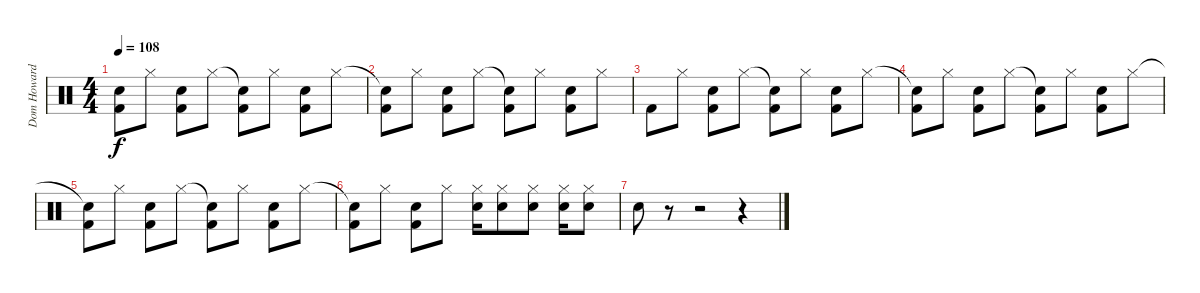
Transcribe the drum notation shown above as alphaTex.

\track ("Dom Howard" "Dom Howard") {instrument percussion}
\staff {score}
\articulation defaults
\ts (4 4)
\tempo 108
\clef neutral
\ks c
("Snare (hit)"{t} "Kick (hit) 2").8{dy f} "Hi-Hat (closed)".8 ("Electric Snare (hit)" "Kick (hit) 2").8 "Hi-Hat (closed)".8 ("Snare (hit)"{t} "Kick (hit) 2").8 "Hi-Hat (closed)".8 ("Electric Snare (hit)" "Kick (hit) 2").8 "Hi-Hat (closed)".8 |
("Snare (hit)"{t} "Kick (hit) 2").8 "Hi-Hat (closed)".8 ("Electric Snare (hit)" "Kick (hit) 2").8 "Hi-Hat (closed)".8 ("Snare (hit)"{t} "Kick (hit) 2").8 "Hi-Hat (closed)".8 ("Electric Snare (hit)" "Kick (hit) 2").8 "Hi-Hat (closed)".8 |
"Kick (hit) 2".8 "Hi-Hat (closed)".8 ("Electric Snare (hit)" "Kick (hit) 2").8 "Hi-Hat (closed)".8 ("Snare (hit)"{t} "Kick (hit) 2").8 "Hi-Hat (closed)".8 ("Electric Snare (hit)" "Kick (hit) 2").8 "Hi-Hat (closed)".8 |
("Snare (hit)"{t} "Kick (hit) 2").8 "Hi-Hat (closed)".8 ("Electric Snare (hit)" "Kick (hit) 2").8 "Hi-Hat (closed)".8 ("Snare (hit)"{t} "Kick (hit) 2").8 "Hi-Hat (closed)".8 ("Electric Snare (hit)" "Kick (hit) 2").8 "Hi-Hat (closed)".8 |
("Snare (hit)"{t} "Kick (hit) 2").8 "Hi-Hat (closed)".8 ("Electric Snare (hit)" "Kick (hit) 2").8 "Hi-Hat (closed)".8 ("Snare (hit)"{t} "Kick (hit) 2").8 "Hi-Hat (closed)".8 ("Electric Snare (hit)" "Kick (hit) 2").8 "Hi-Hat (closed)".8 |
("Snare (hit)"{t} "Kick (hit) 2").8 "Hi-Hat (closed)".8 ("Electric Snare (hit)" "Kick (hit) 2").8 "Hi-Hat (closed)".8 ("Hi-Hat (closed)" "Electric Snare (hit)").16 ("Hi-Hat (closed)" "Electric Snare (hit)").8 ("Hi-Hat (closed)" "Electric Snare (hit)").8 ("Hi-Hat (closed)" "Electric Snare (hit)").16 ("Hi-Hat (closed)" "Electric Snare (hit)").8 |
"Electric Snare (hit)".8 r.8 r.2 r.4
